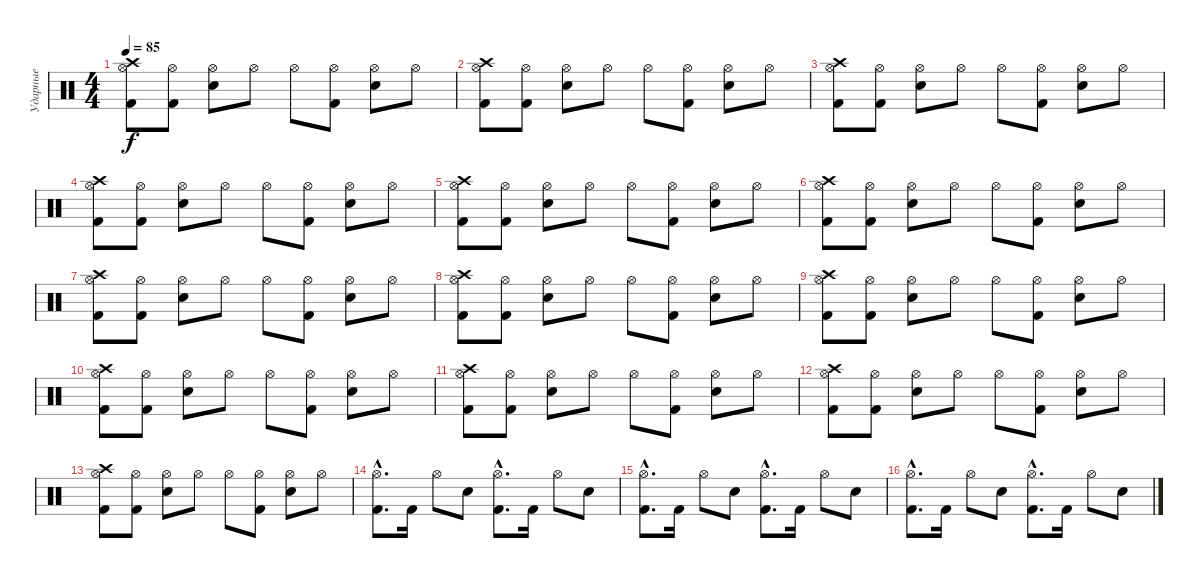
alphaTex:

\track ("Ударные" "Ударные") {instrument percussion}
\staff {score}
\articulation defaults
\ts (4 4)
\tempo 85
\clef neutral
\ks c
("Hi-Hat (open)" "Crash high (hit)" "Kick (hit) 2").8{dy f} ("Hi-Hat (open)" "Kick (hit) 2").8 ("Hi-Hat (open)" "Snare (hit) 2").8 "Hi-Hat (open)".8 "Hi-Hat (open)".8 ("Hi-Hat (open)" "Kick (hit) 2").8 ("Hi-Hat (open)" "Snare (hit) 2").8 "Hi-Hat (open)".8 |
("Hi-Hat (open)" "Crash high (hit)" "Kick (hit) 2").8 ("Hi-Hat (open)" "Kick (hit) 2").8 ("Hi-Hat (open)" "Snare (hit) 2").8 "Hi-Hat (open)".8 "Hi-Hat (open)".8 ("Hi-Hat (open)" "Kick (hit) 2").8 ("Hi-Hat (open)" "Snare (hit) 2").8 "Hi-Hat (open)".8 |
("Hi-Hat (open)" "Crash high (hit)" "Kick (hit) 2").8 ("Hi-Hat (open)" "Kick (hit) 2").8 ("Hi-Hat (open)" "Snare (hit) 2").8 "Hi-Hat (open)".8 "Hi-Hat (open)".8 ("Hi-Hat (open)" "Kick (hit) 2").8 ("Hi-Hat (open)" "Snare (hit) 2").8 "Hi-Hat (open)".8 |
("Hi-Hat (open)" "Crash high (hit)" "Kick (hit) 2").8 ("Hi-Hat (open)" "Kick (hit) 2").8 ("Hi-Hat (open)" "Snare (hit) 2").8 "Hi-Hat (open)".8 "Hi-Hat (open)".8 ("Hi-Hat (open)" "Kick (hit) 2").8 ("Hi-Hat (open)" "Snare (hit) 2").8 "Hi-Hat (open)".8 |
("Hi-Hat (open)" "Crash high (hit)" "Kick (hit) 2").8 ("Hi-Hat (open)" "Kick (hit) 2").8 ("Hi-Hat (open)" "Snare (hit) 2").8 "Hi-Hat (open)".8 "Hi-Hat (open)".8 ("Hi-Hat (open)" "Kick (hit) 2").8 ("Hi-Hat (open)" "Snare (hit) 2").8 "Hi-Hat (open)".8 |
("Hi-Hat (open)" "Crash high (hit)" "Kick (hit) 2").8 ("Hi-Hat (open)" "Kick (hit) 2").8 ("Hi-Hat (open)" "Snare (hit) 2").8 "Hi-Hat (open)".8 "Hi-Hat (open)".8 ("Hi-Hat (open)" "Kick (hit) 2").8 ("Hi-Hat (open)" "Snare (hit) 2").8 "Hi-Hat (open)".8 |
("Hi-Hat (open)" "Crash high (hit)" "Kick (hit) 2").8 ("Hi-Hat (open)" "Kick (hit) 2").8 ("Hi-Hat (open)" "Snare (hit) 2").8 "Hi-Hat (open)".8 "Hi-Hat (open)".8 ("Hi-Hat (open)" "Kick (hit) 2").8 ("Hi-Hat (open)" "Snare (hit) 2").8 "Hi-Hat (open)".8 |
("Hi-Hat (open)" "Crash high (hit)" "Kick (hit) 2").8 ("Hi-Hat (open)" "Kick (hit) 2").8 ("Hi-Hat (open)" "Snare (hit) 2").8 "Hi-Hat (open)".8 "Hi-Hat (open)".8 ("Hi-Hat (open)" "Kick (hit) 2").8 ("Hi-Hat (open)" "Snare (hit) 2").8 "Hi-Hat (open)".8 |
("Hi-Hat (open)" "Crash high (hit)" "Kick (hit) 2").8 ("Hi-Hat (open)" "Kick (hit) 2").8 ("Hi-Hat (open)" "Snare (hit) 2").8 "Hi-Hat (open)".8 "Hi-Hat (open)".8 ("Hi-Hat (open)" "Kick (hit) 2").8 ("Hi-Hat (open)" "Snare (hit) 2").8 "Hi-Hat (open)".8 |
("Hi-Hat (open)" "Crash high (hit)" "Kick (hit) 2").8 ("Hi-Hat (open)" "Kick (hit) 2").8 ("Hi-Hat (open)" "Snare (hit) 2").8 "Hi-Hat (open)".8 "Hi-Hat (open)".8 ("Hi-Hat (open)" "Kick (hit) 2").8 ("Hi-Hat (open)" "Snare (hit) 2").8 "Hi-Hat (open)".8 |
("Hi-Hat (open)" "Crash high (hit)" "Kick (hit) 2").8 ("Hi-Hat (open)" "Kick (hit) 2").8 ("Hi-Hat (open)" "Snare (hit) 2").8 "Hi-Hat (open)".8 "Hi-Hat (open)".8 ("Hi-Hat (open)" "Kick (hit) 2").8 ("Hi-Hat (open)" "Snare (hit) 2").8 "Hi-Hat (open)".8 |
("Hi-Hat (open)" "Crash high (hit)" "Kick (hit) 2").8 ("Hi-Hat (open)" "Kick (hit) 2").8 ("Hi-Hat (open)" "Snare (hit) 2").8 "Hi-Hat (open)".8 "Hi-Hat (open)".8 ("Hi-Hat (open)" "Kick (hit) 2").8 ("Hi-Hat (open)" "Snare (hit) 2").8 "Hi-Hat (open)".8 |
("Hi-Hat (open)" "Crash high (hit)" "Kick (hit) 2").8 ("Hi-Hat (open)" "Kick (hit) 2").8 ("Hi-Hat (open)" "Snare (hit) 2").8 "Hi-Hat (open)".8 "Hi-Hat (open)".8 ("Hi-Hat (open)" "Kick (hit) 2").8 ("Hi-Hat (open)" "Snare (hit) 2").8 "Hi-Hat (open)".8 |
("Hi-Hat (open)"{hac} "Kick (hit) 2"{hac}).8{d} "Kick (hit) 2".16 "Hi-Hat (open)".8 "Snare (hit) 2".8 ("Hi-Hat (open)"{hac} "Kick (hit) 2"{hac}).8{d} "Kick (hit) 2".16 "Hi-Hat (open)".8 "Snare (hit) 2".8 |
("Hi-Hat (open)"{hac} "Kick (hit) 2"{hac}).8{d} "Kick (hit) 2".16 "Hi-Hat (open)".8 "Snare (hit) 2".8 ("Hi-Hat (open)"{hac} "Kick (hit) 2"{hac}).8{d} "Kick (hit) 2".16 "Hi-Hat (open)".8 "Snare (hit) 2".8 |
("Hi-Hat (open)"{hac} "Kick (hit) 2"{hac}).8{d} "Kick (hit) 2".16 "Hi-Hat (open)".8 "Snare (hit) 2".8 ("Hi-Hat (open)"{hac} "Kick (hit) 2"{hac}).8{d} "Kick (hit) 2".16 "Hi-Hat (open)".8 "Snare (hit) 2".8
